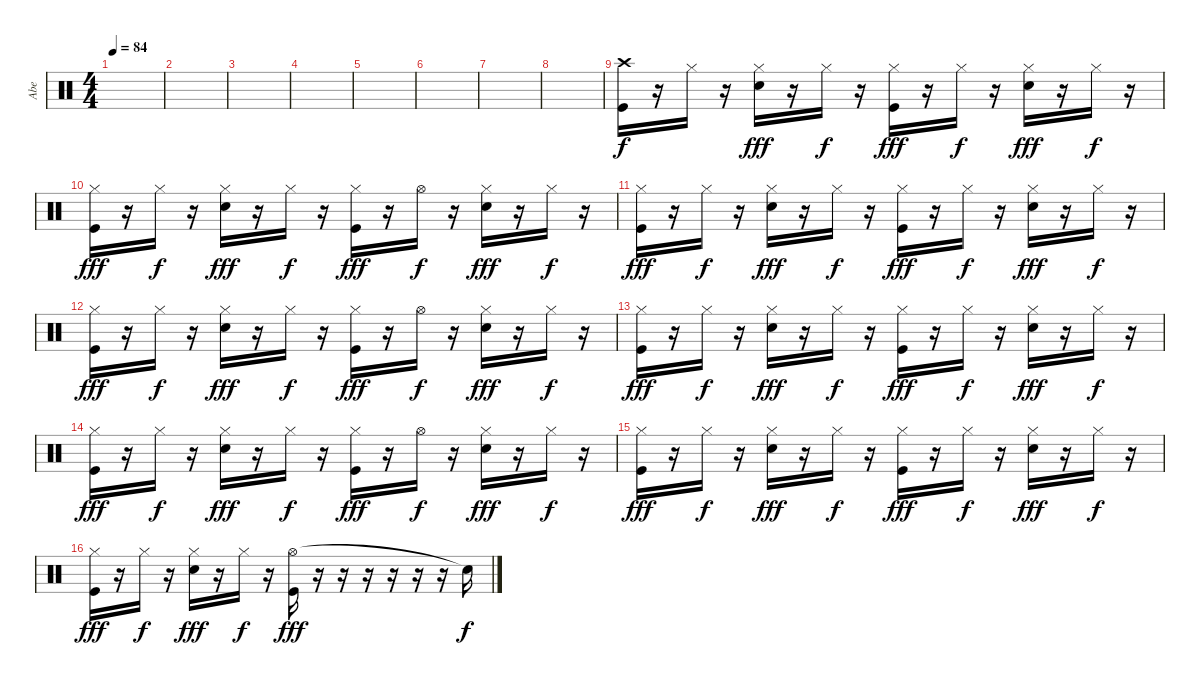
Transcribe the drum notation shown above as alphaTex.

\track ("Abe" "Abe") {instrument percussion}
\staff {score}
\articulation defaults
\ts (4 4)
\tempo 84
\clef neutral
\ks c
|
|
|
|
|
|
|
|
("Crash high (hit)" "Kick (hit)").16 r.16 "Hi-Hat (closed)".16{dy f} r.16 ("Hi-Hat (closed)" "Electric Snare (hit)").16{dy fff} r.16 "Hi-Hat (closed)".16{dy f} r.16 ("Hi-Hat (closed)" "Kick (hit)").16{dy fff} r.16 "Hi-Hat (closed)".16{dy f} r.16 ("Hi-Hat (closed)" "Electric Snare (hit)").16{dy fff} r.16 "Hi-Hat (closed)".16{dy f} r.16 |
("Hi-Hat (closed)" "Kick (hit)").16{dy fff} r.16 "Hi-Hat (closed)".16{dy f} r.16 ("Hi-Hat (closed)" "Electric Snare (hit)").16{dy fff} r.16 "Hi-Hat (closed)".16{dy f} r.16 ("Hi-Hat (closed)" "Kick (hit)").16{dy fff} r.16 "Hi-Hat (open)".16{dy f} r.16 ("Hi-Hat (closed)" "Electric Snare (hit)").16{dy fff} r.16 "Hi-Hat (closed)".16{dy f} r.16 |
("Hi-Hat (closed)" "Kick (hit)").16{dy fff} r.16 "Hi-Hat (closed)".16{dy f} r.16 ("Hi-Hat (closed)" "Electric Snare (hit)").16{dy fff} r.16 "Hi-Hat (closed)".16{dy f} r.16 ("Hi-Hat (closed)" "Kick (hit)").16{dy fff} r.16 "Hi-Hat (closed)".16{dy f} r.16 ("Hi-Hat (closed)" "Electric Snare (hit)").16{dy fff} r.16 "Hi-Hat (closed)".16{dy f} r.16 |
("Hi-Hat (closed)" "Kick (hit)").16{dy fff} r.16 "Hi-Hat (closed)".16{dy f} r.16 ("Hi-Hat (closed)" "Electric Snare (hit)").16{dy fff} r.16 "Hi-Hat (closed)".16{dy f} r.16 ("Hi-Hat (closed)" "Kick (hit)").16{dy fff} r.16 "Hi-Hat (open)".16{dy f} r.16 ("Hi-Hat (closed)" "Electric Snare (hit)").16{dy fff} r.16 "Hi-Hat (closed)".16{dy f} r.16 |
("Hi-Hat (closed)" "Kick (hit)").16{dy fff} r.16 "Hi-Hat (closed)".16{dy f} r.16 ("Hi-Hat (closed)" "Electric Snare (hit)").16{dy fff} r.16 "Hi-Hat (closed)".16{dy f} r.16 ("Hi-Hat (closed)" "Kick (hit)").16{dy fff} r.16 "Hi-Hat (closed)".16{dy f} r.16 ("Hi-Hat (closed)" "Electric Snare (hit)").16{dy fff} r.16 "Hi-Hat (closed)".16{dy f} r.16 |
("Hi-Hat (closed)" "Kick (hit)").16{dy fff} r.16 "Hi-Hat (closed)".16{dy f} r.16 ("Hi-Hat (closed)" "Electric Snare (hit)").16{dy fff} r.16 "Hi-Hat (closed)".16{dy f} r.16 ("Hi-Hat (closed)" "Kick (hit)").16{dy fff} r.16 "Hi-Hat (open)".16{dy f} r.16 ("Hi-Hat (closed)" "Electric Snare (hit)").16{dy fff} r.16 "Hi-Hat (closed)".16{dy f} r.16 |
("Hi-Hat (closed)" "Kick (hit)").16{dy fff} r.16 "Hi-Hat (closed)".16{dy f} r.16 ("Hi-Hat (closed)" "Electric Snare (hit)").16{dy fff} r.16 "Hi-Hat (closed)".16{dy f} r.16 ("Hi-Hat (closed)" "Kick (hit)").16{dy fff} r.16 "Hi-Hat (closed)".16{dy f} r.16 ("Hi-Hat (closed)" "Electric Snare (hit)").16{dy fff} r.16 "Hi-Hat (closed)".16{dy f} r.16 |
("Hi-Hat (closed)" "Kick (hit)").16{dy fff} r.16 "Hi-Hat (closed)".16{dy f} r.16 ("Hi-Hat (closed)" "Electric Snare (hit)").16{dy fff} r.16 "Hi-Hat (closed)".16{dy f} r.16 ("Hi-Hat (open)" "Kick (hit)").16{dy fff} r.16 r.16 r.16 r.16 r.16 r.16 "Snare (hit)"{t}.16{dy f}
